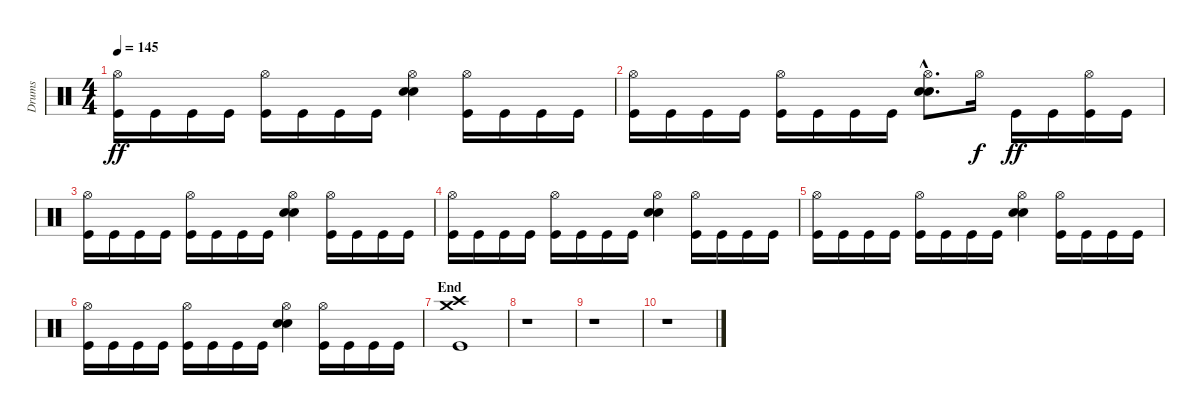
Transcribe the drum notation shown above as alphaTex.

\track ("Drums" "Drums") {instrument percussion}
\staff {score}
\articulation defaults
\ts (4 4)
\tempo 145
\clef neutral
\ks c
("Kick (hit)" "Hi-Hat (open)").16{dy ff} "Kick (hit)".16 "Kick (hit)".16 "Kick (hit)".16 ("Kick (hit)" "Hi-Hat (open)").16 "Kick (hit)".16 "Kick (hit)".16 "Kick (hit)".16 ("Electric Snare (hit)" "Electric Snare (hit)" "Hi-Hat (open)").4 ("Kick (hit)" "Hi-Hat (open)").16 "Kick (hit)".16 "Kick (hit)".16 "Kick (hit)".16 |
("Kick (hit)" "Hi-Hat (open)").16 "Kick (hit)".16 "Kick (hit)".16 "Kick (hit)".16 ("Kick (hit)" "Hi-Hat (open)").16 "Kick (hit)".16 "Kick (hit)".16 "Kick (hit)".16 ("Electric Snare (hit)"{hac} "Electric Snare (hit)"{hac} "Hi-Hat (open)"{hac}).8{d} "Hi-Hat (open)".16{dy f} "Kick (hit)".16{dy ff} "Kick (hit)".16 ("Kick (hit)" "Hi-Hat (open)").16 "Kick (hit)".16 |
("Kick (hit)" "Hi-Hat (open)").16 "Kick (hit)".16 "Kick (hit)".16 "Kick (hit)".16 ("Kick (hit)" "Hi-Hat (open)").16 "Kick (hit)".16 "Kick (hit)".16 "Kick (hit)".16 ("Electric Snare (hit)" "Electric Snare (hit)" "Hi-Hat (open)").4 ("Kick (hit)" "Hi-Hat (open)").16 "Kick (hit)".16 "Kick (hit)".16 "Kick (hit)".16 |
("Kick (hit)" "Hi-Hat (open)").16 "Kick (hit)".16 "Kick (hit)".16 "Kick (hit)".16 ("Kick (hit)" "Hi-Hat (open)").16 "Kick (hit)".16 "Kick (hit)".16 "Kick (hit)".16 ("Electric Snare (hit)" "Electric Snare (hit)" "Hi-Hat (open)").4 ("Kick (hit)" "Hi-Hat (open)").16 "Kick (hit)".16 "Kick (hit)".16 "Kick (hit)".16 |
("Kick (hit)" "Hi-Hat (open)").16 "Kick (hit)".16 "Kick (hit)".16 "Kick (hit)".16 ("Kick (hit)" "Hi-Hat (open)").16 "Kick (hit)".16 "Kick (hit)".16 "Kick (hit)".16 ("Electric Snare (hit)" "Electric Snare (hit)" "Hi-Hat (open)").4 ("Kick (hit)" "Hi-Hat (open)").16 "Kick (hit)".16 "Kick (hit)".16 "Kick (hit)".16 |
("Kick (hit)" "Hi-Hat (open)").16 "Kick (hit)".16 "Kick (hit)".16 "Kick (hit)".16 ("Kick (hit)" "Hi-Hat (open)").16 "Kick (hit)".16 "Kick (hit)".16 "Kick (hit)".16 ("Electric Snare (hit)" "Electric Snare (hit)" "Hi-Hat (open)").4 ("Kick (hit)" "Hi-Hat (open)").16 "Kick (hit)".16 "Kick (hit)".16 "Kick (hit)".16 |
\section ("" "End")
("Kick (hit)" "Crash high (hit)" "Crash medium (hit)").1 |
r.1 |
r.1 |
r.1
